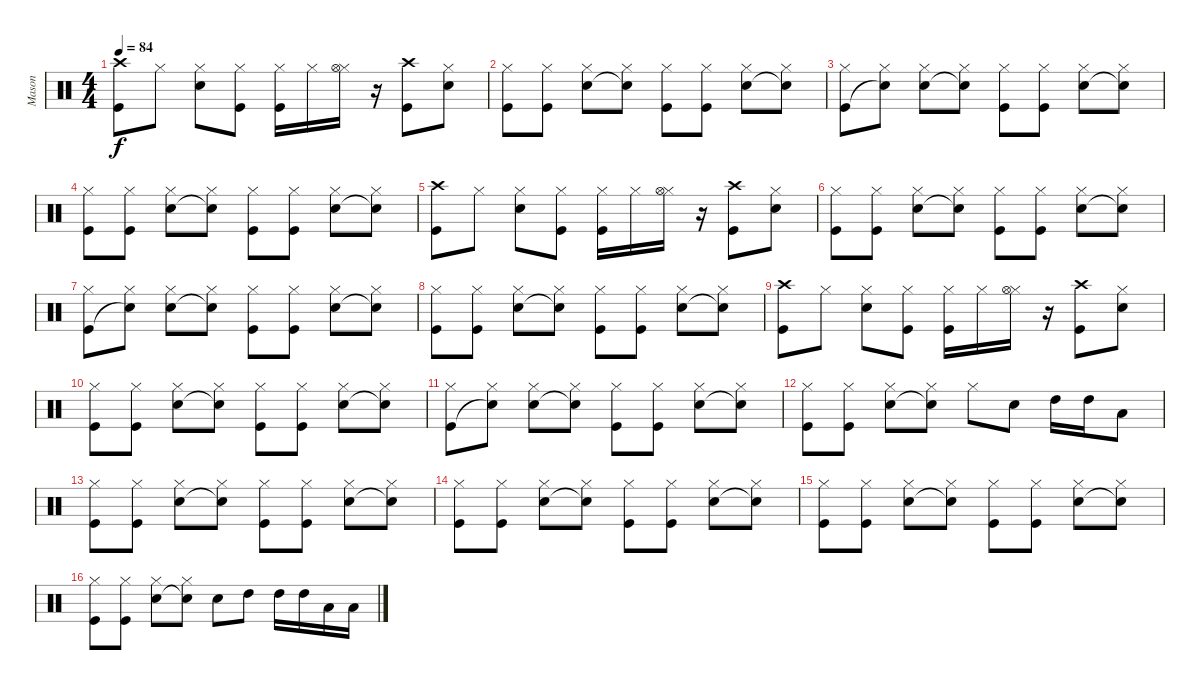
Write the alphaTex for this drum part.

\track ("Mason" "Mason") {instrument percussion}
\staff {score}
\articulation defaults
\ts (4 4)
\tempo 84
\clef neutral
\ks c
("Kick (hit)" "Crash high (hit)").8{dy f} "Hi-Hat (closed)".8 ("Snare (hit) 2" "Hi-Hat (closed)").8 ("Kick (hit)" "Hi-Hat (closed)").8 ("Kick (hit)" "Hi-Hat (closed)").16 "Hi-Hat (closed)".16 ("Hi-Hat (closed)" "Hi-Hat (open)").16 r.16 ("Kick (hit)" "Crash high (hit)").8 ("Snare (hit) 2" "Hi-Hat (closed)").8 |
("Kick (hit)" "Hi-Hat (closed)").8 ("Kick (hit)" "Hi-Hat (closed)").8 ("Snare (hit) 2" "Hi-Hat (closed)").8 ("Snare (hit)"{t} "Hi-Hat (closed)").8 ("Kick (hit)" "Hi-Hat (closed)").8 ("Kick (hit)" "Hi-Hat (closed)").8 ("Snare (hit) 2" "Hi-Hat (closed)").8 ("Snare (hit)"{t} "Hi-Hat (closed)").8 |
("Kick (hit)" "Hi-Hat (closed)").8 ("Snare (hit)"{t} "Hi-Hat (closed)").8 ("Snare (hit) 2" "Hi-Hat (closed)").8 ("Snare (hit)"{t} "Hi-Hat (closed)").8 ("Kick (hit)" "Hi-Hat (closed)").8 ("Kick (hit)" "Hi-Hat (closed)").8 ("Snare (hit) 2" "Hi-Hat (closed)").8 ("Snare (hit)"{t} "Hi-Hat (closed)").8 |
("Kick (hit)" "Hi-Hat (closed)").8 ("Kick (hit)" "Hi-Hat (closed)").8 ("Snare (hit) 2" "Hi-Hat (closed)").8 ("Snare (hit)"{t} "Hi-Hat (closed)").8 ("Kick (hit)" "Hi-Hat (closed)").8 ("Kick (hit)" "Hi-Hat (closed)").8 ("Snare (hit) 2" "Hi-Hat (closed)").8 ("Snare (hit)"{t} "Hi-Hat (closed)").8 |
("Kick (hit)" "Crash high (hit)").8 "Hi-Hat (closed)".8 ("Snare (hit) 2" "Hi-Hat (closed)").8 ("Kick (hit)" "Hi-Hat (closed)").8 ("Kick (hit)" "Hi-Hat (closed)").16 "Hi-Hat (closed)".16 ("Hi-Hat (closed)" "Hi-Hat (open)").16 r.16 ("Kick (hit)" "Crash high (hit)").8 ("Snare (hit) 2" "Hi-Hat (closed)").8 |
("Kick (hit)" "Hi-Hat (closed)").8 ("Kick (hit)" "Hi-Hat (closed)").8 ("Snare (hit) 2" "Hi-Hat (closed)").8 ("Snare (hit)"{t} "Hi-Hat (closed)").8 ("Kick (hit)" "Hi-Hat (closed)").8 ("Kick (hit)" "Hi-Hat (closed)").8 ("Snare (hit) 2" "Hi-Hat (closed)").8 ("Snare (hit)"{t} "Hi-Hat (closed)").8 |
("Kick (hit)" "Hi-Hat (closed)").8 ("Snare (hit)"{t} "Hi-Hat (closed)").8 ("Snare (hit) 2" "Hi-Hat (closed)").8 ("Snare (hit)"{t} "Hi-Hat (closed)").8 ("Kick (hit)" "Hi-Hat (closed)").8 ("Kick (hit)" "Hi-Hat (closed)").8 ("Snare (hit) 2" "Hi-Hat (closed)").8 ("Snare (hit)"{t} "Hi-Hat (closed)").8 |
("Kick (hit)" "Hi-Hat (closed)").8 ("Kick (hit)" "Hi-Hat (closed)").8 ("Snare (hit) 2" "Hi-Hat (closed)").8 ("Snare (hit)"{t} "Hi-Hat (closed)").8 ("Kick (hit)" "Hi-Hat (closed)").8 ("Kick (hit)" "Hi-Hat (closed)").8 ("Snare (hit) 2" "Hi-Hat (closed)").8 ("Snare (hit)"{t} "Hi-Hat (closed)").8 |
("Kick (hit)" "Crash high (hit)").8 "Hi-Hat (closed)".8 ("Snare (hit) 2" "Hi-Hat (closed)").8 ("Kick (hit)" "Hi-Hat (closed)").8 ("Kick (hit)" "Hi-Hat (closed)").16 "Hi-Hat (closed)".16 ("Hi-Hat (closed)" "Hi-Hat (open)").16 r.16 ("Kick (hit)" "Crash high (hit)").8 ("Snare (hit) 2" "Hi-Hat (closed)").8 |
("Kick (hit)" "Hi-Hat (closed)").8 ("Kick (hit)" "Hi-Hat (closed)").8 ("Snare (hit) 2" "Hi-Hat (closed)").8 ("Snare (hit)"{t} "Hi-Hat (closed)").8 ("Kick (hit)" "Hi-Hat (closed)").8 ("Kick (hit)" "Hi-Hat (closed)").8 ("Snare (hit) 2" "Hi-Hat (closed)").8 ("Snare (hit)"{t} "Hi-Hat (closed)").8 |
("Kick (hit)" "Hi-Hat (closed)").8 ("Snare (hit)"{t} "Hi-Hat (closed)").8 ("Snare (hit) 2" "Hi-Hat (closed)").8 ("Snare (hit)"{t} "Hi-Hat (closed)").8 ("Kick (hit)" "Hi-Hat (closed)").8 ("Kick (hit)" "Hi-Hat (closed)").8 ("Snare (hit) 2" "Hi-Hat (closed)").8 ("Snare (hit)"{t} "Hi-Hat (closed)").8 |
("Kick (hit)" "Hi-Hat (closed)").8 ("Kick (hit)" "Hi-Hat (closed)").8 ("Snare (hit) 2" "Hi-Hat (closed)").8 ("Snare (hit)"{t} "Hi-Hat (closed)").8 "Hi-Hat (closed)".8 "Snare (hit) 2".8 "High Tom (hit)".16 "High Tom (hit)".16 "Low Floor Tom (hit)".8 |
("Kick (hit)" "Hi-Hat (closed)").8 ("Kick (hit)" "Hi-Hat (closed)").8 ("Snare (hit) 2" "Hi-Hat (closed)").8 ("Snare (hit)"{t} "Hi-Hat (closed)").8 ("Kick (hit)" "Hi-Hat (closed)").8 ("Kick (hit)" "Hi-Hat (closed)").8 ("Snare (hit) 2" "Hi-Hat (closed)").8 ("Snare (hit)"{t} "Hi-Hat (closed)").8 |
("Kick (hit)" "Hi-Hat (closed)").8 ("Kick (hit)" "Hi-Hat (closed)").8 ("Snare (hit) 2" "Hi-Hat (closed)").8 ("Snare (hit)"{t} "Hi-Hat (closed)").8 ("Kick (hit)" "Hi-Hat (closed)").8 ("Kick (hit)" "Hi-Hat (closed)").8 ("Snare (hit) 2" "Hi-Hat (closed)").8 ("Snare (hit)"{t} "Hi-Hat (closed)").8 |
("Kick (hit)" "Hi-Hat (closed)").8 ("Kick (hit)" "Hi-Hat (closed)").8 ("Snare (hit) 2" "Hi-Hat (closed)").8 ("Snare (hit)"{t} "Hi-Hat (closed)").8 ("Kick (hit)" "Hi-Hat (closed)").8 ("Kick (hit)" "Hi-Hat (closed)").8 ("Snare (hit) 2" "Hi-Hat (closed)").8 ("Snare (hit)"{t} "Hi-Hat (closed)").8 |
("Kick (hit)" "Hi-Hat (closed)").8 ("Kick (hit)" "Hi-Hat (closed)").8 ("Snare (hit) 2" "Hi-Hat (closed)").8 ("Snare (hit)"{t} "Hi-Hat (closed)").8 "Snare (hit) 2".8 "High Tom (hit)".8 "High Tom (hit)".16 "High Tom (hit)".16 "Low Floor Tom (hit)".16 "Low Floor Tom (hit)".16
